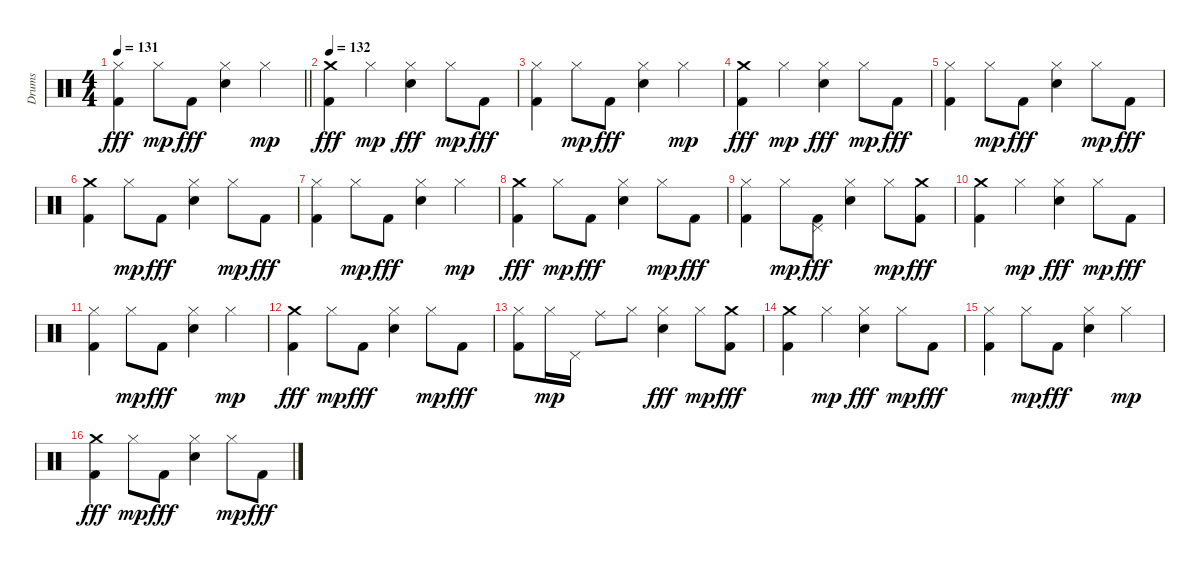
\track ("Drums" "Drums") {instrument percussion}
\staff {score}
\articulation defaults
\ts (4 4)
\tempo 131
\clef neutral
\barLineRight lightlight
\ks c
("Hi-Hat (closed)" "Kick (hit) 2").4{dy fff} "Hi-Hat (closed)".8{dy mp} "Kick (hit) 2".8{dy fff} ("Hi-Hat (closed)" "Electric Snare (hit)").4 "Hi-Hat (closed)".4{dy mp} |
\tempo 132
("Crash medium (hit)" "Kick (hit) 2").4{dy fff} "Hi-Hat (closed)".4{dy mp} ("Hi-Hat (closed)" "Electric Snare (hit)").4{dy fff} "Hi-Hat (closed)".8{dy mp} "Kick (hit) 2".8{dy fff} |
("Hi-Hat (closed)" "Kick (hit) 2").4 "Hi-Hat (closed)".8{dy mp} "Kick (hit) 2".8{dy fff} ("Hi-Hat (closed)" "Electric Snare (hit)").4 "Hi-Hat (closed)".4{dy mp} |
("Crash medium (hit)" "Kick (hit) 2").4{dy fff} "Hi-Hat (closed)".4{dy mp} ("Hi-Hat (closed)" "Electric Snare (hit)").4{dy fff} "Hi-Hat (closed)".8{dy mp} "Kick (hit) 2".8{dy fff} |
("Hi-Hat (closed)" "Kick (hit) 2").4 "Hi-Hat (closed)".8{dy mp} "Kick (hit) 2".8{dy fff} ("Hi-Hat (closed)" "Electric Snare (hit)").4 "Hi-Hat (closed)".8{dy mp} "Kick (hit) 2".8{dy fff} |
("Crash medium (hit)" "Kick (hit) 2").4 "Hi-Hat (closed)".8{dy mp} "Kick (hit) 2".8{dy fff} ("Hi-Hat (closed)" "Electric Snare (hit)").4 "Hi-Hat (closed)".8{dy mp} "Kick (hit) 2".8{dy fff} |
("Hi-Hat (closed)" "Kick (hit) 2").4 "Hi-Hat (closed)".8{dy mp} "Kick (hit) 2".8{dy fff} ("Hi-Hat (closed)" "Electric Snare (hit)").4 "Hi-Hat (closed)".4{dy mp} |
("Crash medium (hit)" "Kick (hit) 2").4{dy fff} "Hi-Hat (closed)".8{dy mp} "Kick (hit) 2".8{dy fff} ("Hi-Hat (closed)" "Electric Snare (hit)").4 "Hi-Hat (closed)".8{dy mp} "Kick (hit) 2".8{dy fff} |
("Hi-Hat (closed)" "Kick (hit) 2").4 "Hi-Hat (closed)".8{dy mp} ("Pedal Hi-Hat (hit)" "Kick (hit) 2").8{dy fff} ("Hi-Hat (closed)" "Electric Snare (hit)").4 "Hi-Hat (closed)".8{dy mp} ("Crash medium (hit)" "Kick (hit) 2").8{dy fff} |
("Crash medium (hit)" "Kick (hit) 2").4 "Hi-Hat (closed)".4{dy mp} ("Hi-Hat (closed)" "Electric Snare (hit)").4{dy fff} "Hi-Hat (closed)".8{dy mp} "Kick (hit) 2".8{dy fff} |
("Hi-Hat (closed)" "Kick (hit) 2").4 "Hi-Hat (closed)".8{dy mp} "Kick (hit) 2".8{dy fff} ("Hi-Hat (closed)" "Electric Snare (hit)").4 "Hi-Hat (closed)".4{dy mp} |
("Crash medium (hit)" "Kick (hit) 2").4{dy fff} "Hi-Hat (closed)".8{dy mp} "Kick (hit) 2".8{dy fff} ("Hi-Hat (closed)" "Electric Snare (hit)").4 "Hi-Hat (closed)".8{dy mp} "Kick (hit) 2".8{dy fff} |
("Hi-Hat (closed)" "Kick (hit) 2").8 "Hi-Hat (closed)".16{dy mp} "Pedal Hi-Hat (hit)".16 "Ride (middle)".8 "Hi-Hat (closed)".8 ("Hi-Hat (closed)" "Electric Snare (hit)").4{dy fff} "Hi-Hat (closed)".8{dy mp} ("Crash medium (hit)" "Kick (hit) 2").8{dy fff} |
("Crash medium (hit)" "Kick (hit) 2").4 "Hi-Hat (closed)".4{dy mp} ("Hi-Hat (closed)" "Electric Snare (hit)").4{dy fff} "Hi-Hat (closed)".8{dy mp} "Kick (hit) 2".8{dy fff} |
("Hi-Hat (closed)" "Kick (hit) 2").4 "Hi-Hat (closed)".8{dy mp} "Kick (hit) 2".8{dy fff} ("Hi-Hat (closed)" "Electric Snare (hit)").4 "Hi-Hat (closed)".4{dy mp} |
("Crash medium (hit)" "Kick (hit) 2").4{dy fff} "Hi-Hat (closed)".8{dy mp} "Kick (hit) 2".8{dy fff} ("Hi-Hat (closed)" "Electric Snare (hit)").4 "Hi-Hat (closed)".8{dy mp} "Kick (hit) 2".8{dy fff}
